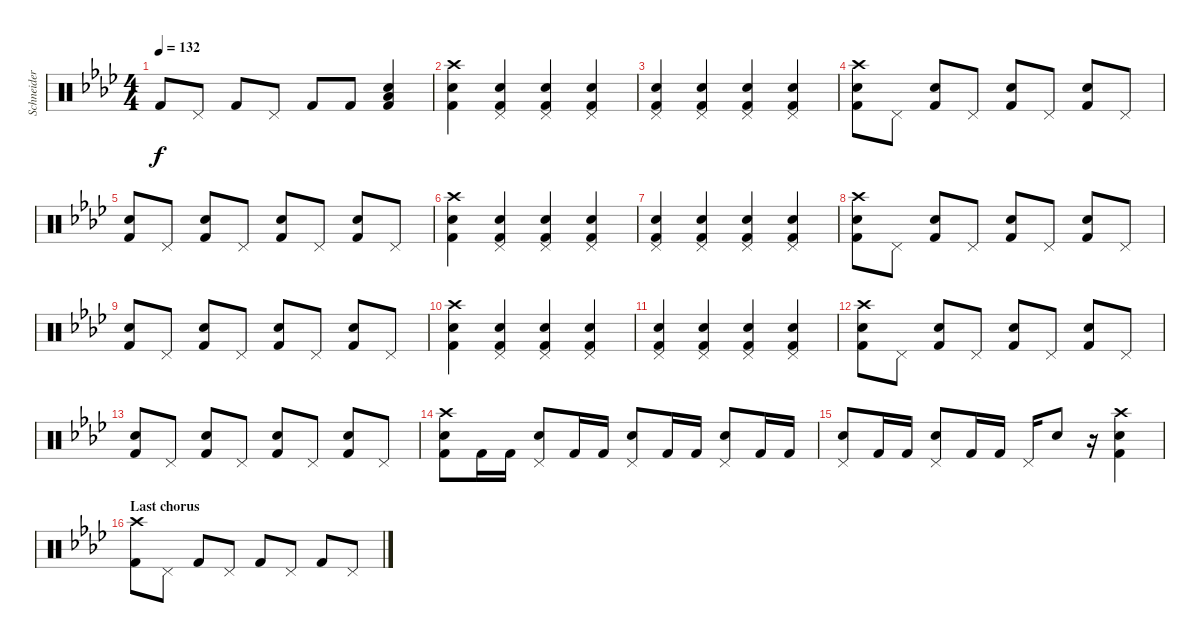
\track ("Schneider" "Schneider") {instrument percussion}
\staff {score}
\articulation defaults
\ts (4 4)
\tempo 132
\clef neutral
\ks fminor "Kick (hit) 2".8{dy f} "Pedal Hi-Hat (hit)".8 "Kick (hit) 2".8 "Pedal Hi-Hat (hit)".8 "Kick (hit) 2".8 "Kick (hit) 2".8
("Snare (hit) 2" "Low Floor Tom (hit)" "Kick (hit) 2").4 |
("Crash high (hit)" "Snare (hit) 2" "Kick (hit) 2").4 ("Pedal Hi-Hat (hit)" "Snare (hit) 2" "Kick (hit) 2").4 ("Pedal Hi-Hat (hit)" "Snare (hit) 2" "Kick (hit) 2").4 ("Pedal Hi-Hat (hit)" "Snare (hit) 2" "Kick (hit) 2").4 |
("Pedal Hi-Hat (hit)" "Snare (hit) 2" "Kick (hit) 2").4 ("Pedal Hi-Hat (hit)" "Snare (hit) 2" "Kick (hit) 2").4 ("Pedal Hi-Hat (hit)" "Snare (hit) 2" "Kick (hit) 2").4 ("Pedal Hi-Hat (hit)" "Snare (hit) 2" "Kick (hit) 2").4 |
("Crash high (hit)" "Snare (hit) 2" "Kick (hit) 2").8 "Pedal Hi-Hat (hit)".8 ("Snare (hit) 2" "Kick (hit) 2").8 "Pedal Hi-Hat (hit)".8 ("Snare (hit) 2" "Kick (hit) 2").8 "Pedal Hi-Hat (hit)".8 ("Snare (hit) 2" "Kick (hit) 2").8 "Pedal Hi-Hat (hit)".8 |
("Snare (hit) 2" "Kick (hit) 2").8 "Pedal Hi-Hat (hit)".8 ("Snare (hit) 2" "Kick (hit) 2").8 "Pedal Hi-Hat (hit)".8 ("Snare (hit) 2" "Kick (hit) 2").8 "Pedal Hi-Hat (hit)".8 ("Snare (hit) 2" "Kick (hit) 2").8 "Pedal Hi-Hat (hit)".8 |
("Crash high (hit)" "Snare (hit) 2" "Kick (hit) 2").4 ("Pedal Hi-Hat (hit)" "Snare (hit) 2" "Kick (hit) 2").4 ("Pedal Hi-Hat (hit)" "Snare (hit) 2" "Kick (hit) 2").4 ("Pedal Hi-Hat (hit)" "Snare (hit) 2" "Kick (hit) 2").4 |
("Pedal Hi-Hat (hit)" "Snare (hit) 2" "Kick (hit) 2").4 ("Pedal Hi-Hat (hit)" "Snare (hit) 2" "Kick (hit) 2").4 ("Pedal Hi-Hat (hit)" "Snare (hit) 2" "Kick (hit) 2").4 ("Pedal Hi-Hat (hit)" "Snare (hit) 2" "Kick (hit) 2").4 |
("Crash high (hit)" "Snare (hit) 2" "Kick (hit) 2").8 "Pedal Hi-Hat (hit)".8 ("Snare (hit) 2" "Kick (hit) 2").8 "Pedal Hi-Hat (hit)".8 ("Snare (hit) 2" "Kick (hit) 2").8 "Pedal Hi-Hat (hit)".8 ("Snare (hit) 2" "Kick (hit) 2").8 "Pedal Hi-Hat (hit)".8 |
("Snare (hit) 2" "Kick (hit) 2").8 "Pedal Hi-Hat (hit)".8 ("Snare (hit) 2" "Kick (hit) 2").8 "Pedal Hi-Hat (hit)".8 ("Snare (hit) 2" "Kick (hit) 2").8 "Pedal Hi-Hat (hit)".8 ("Snare (hit) 2" "Kick (hit) 2").8 "Pedal Hi-Hat (hit)".8 |
("Crash high (hit)" "Snare (hit) 2" "Kick (hit) 2").4 ("Pedal Hi-Hat (hit)" "Snare (hit) 2" "Kick (hit) 2").4 ("Pedal Hi-Hat (hit)" "Snare (hit) 2" "Kick (hit) 2").4 ("Pedal Hi-Hat (hit)" "Snare (hit) 2" "Kick (hit) 2").4 |
("Pedal Hi-Hat (hit)" "Snare (hit) 2" "Kick (hit) 2").4 ("Pedal Hi-Hat (hit)" "Snare (hit) 2" "Kick (hit) 2").4 ("Pedal Hi-Hat (hit)" "Snare (hit) 2" "Kick (hit) 2").4 ("Pedal Hi-Hat (hit)" "Snare (hit) 2" "Kick (hit) 2").4 |
("Crash high (hit)" "Snare (hit) 2" "Kick (hit) 2").8 "Pedal Hi-Hat (hit)".8 ("Snare (hit) 2" "Kick (hit) 2").8 "Pedal Hi-Hat (hit)".8 ("Snare (hit) 2" "Kick (hit) 2").8 "Pedal Hi-Hat (hit)".8 ("Snare (hit) 2" "Kick (hit) 2").8 "Pedal Hi-Hat (hit)".8 |
("Snare (hit) 2" "Kick (hit) 2").8 "Pedal Hi-Hat (hit)".8 ("Snare (hit) 2" "Kick (hit) 2").8 "Pedal Hi-Hat (hit)".8 ("Snare (hit) 2" "Kick (hit) 2").8 "Pedal Hi-Hat (hit)".8 ("Snare (hit) 2" "Kick (hit) 2").8 "Pedal Hi-Hat (hit)".8 |
("Crash high (hit)" "Snare (hit) 2" "Kick (hit) 2").8 "Kick (hit) 2".16 "Kick (hit) 2".16 ("Pedal Hi-Hat (hit)" "Snare (hit) 2").8 "Kick (hit) 2".16 "Kick (hit) 2".16 ("Pedal Hi-Hat (hit)" "Snare (hit) 2").8 "Kick (hit) 2".16 "Kick (hit) 2".16 ("Pedal Hi-Hat (hit)" "Snare (hit) 2").8 "Kick (hit) 2".16 "Kick (hit) 2".16 |
("Pedal Hi-Hat (hit)" "Snare (hit) 2").8 "Kick (hit) 2".16 "Kick (hit) 2".16 ("Pedal Hi-Hat (hit)" "Snare (hit) 2").8 "Kick (hit) 2".16 "Kick (hit) 2".16 "Pedal Hi-Hat (hit)".16 "Snare (hit) 2".8 r.16 ("Crash high (hit)" "Snare (hit) 2" "Kick (hit) 2").4 |
\section ("" "Last chorus")
("Crash high (hit)" "Kick (hit) 2").8 "Pedal Hi-Hat (hit)".8 "Kick (hit) 2".8 "Pedal Hi-Hat (hit)".8 "Kick (hit) 2".8 "Pedal Hi-Hat (hit)".8 "Kick (hit) 2".8 "Pedal Hi-Hat (hit)".8
